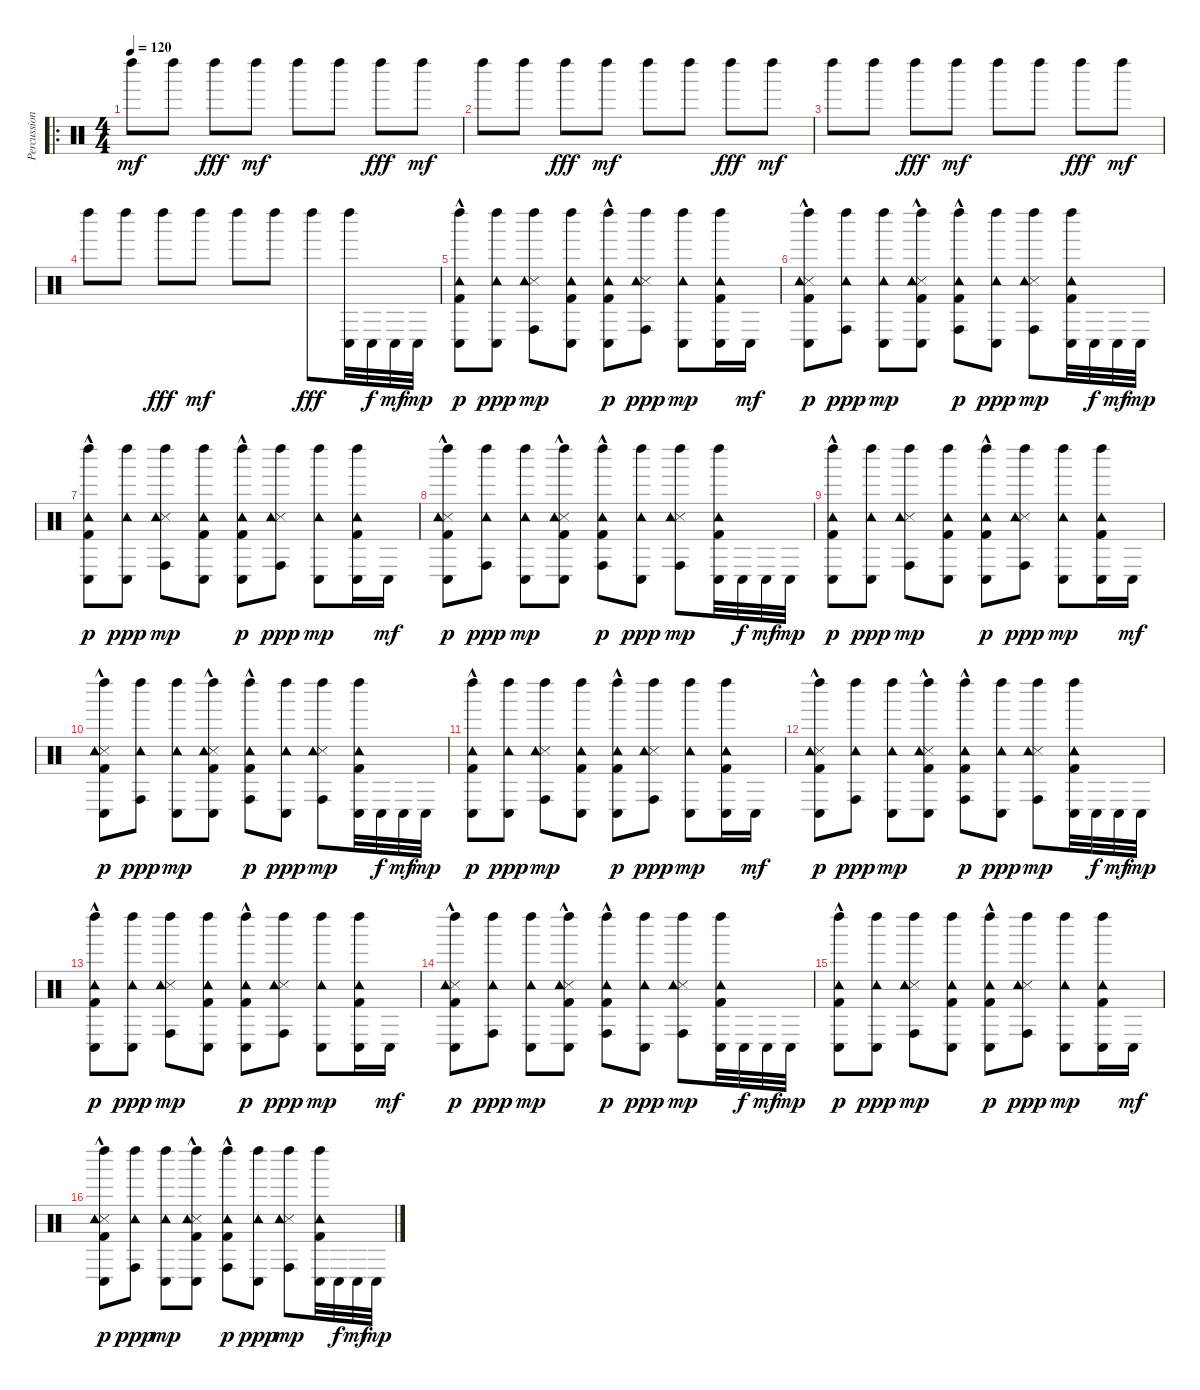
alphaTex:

\track ("Percussions" "Percussion") {instrument percussion}
\staff {score}
\articulation defaults
\ro
\ts (4 4)
\tempo 120
\clef neutral
\ks c "Left Maraca (hit)".8{dy mf} "Left Maraca (hit)".8 "Left Maraca (hit)".8{dy fff} "Left Maraca (hit)".8{dy mf} "Left Maraca (hit)".8 "Left Maraca (hit)".8 "Left Maraca (hit)".8{dy fff} "Left Maraca (hit)".8{dy mf}
|
"Left Maraca (hit)".8 "Left Maraca (hit)".8 "Left Maraca (hit)".8{dy fff} "Left Maraca (hit)".8{dy mf} "Left Maraca (hit)".8 "Left Maraca (hit)".8 "Left Maraca (hit)".8{dy fff} "Left Maraca (hit)".8{dy mf} |
"Left Maraca (hit)".8 "Left Maraca (hit)".8 "Left Maraca (hit)".8{dy fff} "Left Maraca (hit)".8{dy mf} "Left Maraca (hit)".8 "Left Maraca (hit)".8 "Left Maraca (hit)".8{dy fff} "Left Maraca (hit)".8{dy mf} |
"Left Maraca (hit)".8 "Left Maraca (hit)".8 "Left Maraca (hit)".8{dy fff} "Left Maraca (hit)".8{dy mf} "Left Maraca (hit)".8 "Left Maraca (hit)".8 "Left Maraca (hit)".8{dy fff} ("Left Maraca (hit)" "Conga low (hit)").32 "Conga low (hit)".32{dy f} "Conga low (hit)".32{dy mf} "Conga low (hit)".32{dy mp} |
("Kick (hit) 2"{hac} "Left Maraca (hit)" "Conga low (hit)" "Tambourine (hit)").8{dy p} ("Left Maraca (hit)" "Conga low (hit)" "Tambourine (hit)").8{dy ppp} ("Snare (side stick) 3" "Left Maraca (hit)" "Conga high (hit)" "Tambourine (hit)").8{dy mp} ("Kick (hit) 2" "Left Maraca (hit)" "Conga low (hit)" "Tambourine (hit)").8 ("Kick (hit) 2"{hac} "Left Maraca (hit)" "Conga low (hit)" "Tambourine (hit)").8{dy p} ("Snare (side stick) 3" "Left Maraca (hit)" "Conga high (hit)" "Tambourine (hit)").8{dy ppp} ("Left Maraca (hit)" "Conga low (hit)" "Tambourine (hit)").8{dy mp} ("Kick (hit) 2" "Left Maraca (hit)" "Conga low (hit)" "Tambourine (hit)").16 "Conga low (hit)".16{dy mf} |
("Snare (side stick) 3"{hac} "Kick (hit) 2"{hac} "Left Maraca (hit)" "Conga low (hit)" "Tambourine (hit)").8{dy p} ("Left Maraca (hit)" "Conga high (hit)" "Tambourine (hit)").8{dy ppp} ("Left Maraca (hit)" "Conga low (hit)" "Tambourine (hit)").8{dy mp} ("Snare (side stick) 3"{hac} "Kick (hit) 2" "Left Maraca (hit)" "Conga low (hit)" "Tambourine (hit)").8 ("Kick (hit) 2"{hac} "Left Maraca (hit)" "Conga high (hit)" "Tambourine (hit)").8{dy p} ("Left Maraca (hit)" "Conga low (hit)" "Tambourine (hit)").8{dy ppp} ("Snare (side stick) 3" "Left Maraca (hit)" "Conga high (hit)" "Tambourine (hit)").8{dy mp} ("Kick (hit) 2" "Left Maraca (hit)" "Conga low (hit)" "Tambourine (hit)").32 "Conga low (hit)".32{dy f} "Conga low (hit)".32{dy mf} "Conga low (hit)".32{dy mp} |
("Kick (hit) 2"{hac} "Left Maraca (hit)" "Conga low (hit)" "Tambourine (hit)").8{dy p} ("Left Maraca (hit)" "Conga low (hit)" "Tambourine (hit)").8{dy ppp} ("Snare (side stick) 3" "Left Maraca (hit)" "Conga high (hit)" "Tambourine (hit)").8{dy mp} ("Kick (hit) 2" "Left Maraca (hit)" "Conga low (hit)" "Tambourine (hit)").8 ("Kick (hit) 2"{hac} "Left Maraca (hit)" "Conga low (hit)" "Tambourine (hit)").8{dy p} ("Snare (side stick) 3" "Left Maraca (hit)" "Conga high (hit)" "Tambourine (hit)").8{dy ppp} ("Left Maraca (hit)" "Conga low (hit)" "Tambourine (hit)").8{dy mp} ("Kick (hit) 2" "Left Maraca (hit)" "Conga low (hit)" "Tambourine (hit)").16 "Conga low (hit)".16{dy mf} |
("Snare (side stick) 3"{hac} "Kick (hit) 2"{hac} "Left Maraca (hit)" "Conga low (hit)" "Tambourine (hit)").8{dy p} ("Left Maraca (hit)" "Conga high (hit)" "Tambourine (hit)").8{dy ppp} ("Left Maraca (hit)" "Conga low (hit)" "Tambourine (hit)").8{dy mp} ("Snare (side stick) 3"{hac} "Kick (hit) 2" "Left Maraca (hit)" "Conga low (hit)" "Tambourine (hit)").8 ("Kick (hit) 2"{hac} "Left Maraca (hit)" "Conga high (hit)" "Tambourine (hit)").8{dy p} ("Left Maraca (hit)" "Conga low (hit)" "Tambourine (hit)").8{dy ppp} ("Snare (side stick) 3" "Left Maraca (hit)" "Conga high (hit)" "Tambourine (hit)").8{dy mp} ("Kick (hit) 2" "Left Maraca (hit)" "Conga low (hit)" "Tambourine (hit)").32 "Conga low (hit)".32{dy f} "Conga low (hit)".32{dy mf} "Conga low (hit)".32{dy mp} |
("Kick (hit) 2"{hac} "Left Maraca (hit)" "Conga low (hit)" "Tambourine (hit)").8{dy p} ("Left Maraca (hit)" "Conga low (hit)" "Tambourine (hit)").8{dy ppp} ("Snare (side stick) 3" "Left Maraca (hit)" "Conga high (hit)" "Tambourine (hit)").8{dy mp} ("Kick (hit) 2" "Left Maraca (hit)" "Conga low (hit)" "Tambourine (hit)").8 ("Kick (hit) 2"{hac} "Left Maraca (hit)" "Conga low (hit)" "Tambourine (hit)").8{dy p} ("Snare (side stick) 3" "Left Maraca (hit)" "Conga high (hit)" "Tambourine (hit)").8{dy ppp} ("Left Maraca (hit)" "Conga low (hit)" "Tambourine (hit)").8{dy mp} ("Kick (hit) 2" "Left Maraca (hit)" "Conga low (hit)" "Tambourine (hit)").16 "Conga low (hit)".16{dy mf} |
("Snare (side stick) 3"{hac} "Kick (hit) 2"{hac} "Left Maraca (hit)" "Conga low (hit)" "Tambourine (hit)").8{dy p} ("Left Maraca (hit)" "Conga high (hit)" "Tambourine (hit)").8{dy ppp} ("Left Maraca (hit)" "Conga low (hit)" "Tambourine (hit)").8{dy mp} ("Snare (side stick) 3"{hac} "Kick (hit) 2" "Left Maraca (hit)" "Conga low (hit)" "Tambourine (hit)").8 ("Kick (hit) 2"{hac} "Left Maraca (hit)" "Conga high (hit)" "Tambourine (hit)").8{dy p} ("Left Maraca (hit)" "Conga low (hit)" "Tambourine (hit)").8{dy ppp} ("Snare (side stick) 3" "Left Maraca (hit)" "Conga high (hit)" "Tambourine (hit)").8{dy mp} ("Kick (hit) 2" "Left Maraca (hit)" "Conga low (hit)" "Tambourine (hit)").32 "Conga low (hit)".32{dy f} "Conga low (hit)".32{dy mf} "Conga low (hit)".32{dy mp} |
("Kick (hit) 2"{hac} "Left Maraca (hit)" "Conga low (hit)" "Tambourine (hit)").8{dy p} ("Left Maraca (hit)" "Conga low (hit)" "Tambourine (hit)").8{dy ppp} ("Snare (side stick) 3" "Left Maraca (hit)" "Conga high (hit)" "Tambourine (hit)").8{dy mp} ("Kick (hit) 2" "Left Maraca (hit)" "Conga low (hit)" "Tambourine (hit)").8 ("Kick (hit) 2"{hac} "Left Maraca (hit)" "Conga low (hit)" "Tambourine (hit)").8{dy p} ("Snare (side stick) 3" "Left Maraca (hit)" "Conga high (hit)" "Tambourine (hit)").8{dy ppp} ("Left Maraca (hit)" "Conga low (hit)" "Tambourine (hit)").8{dy mp} ("Kick (hit) 2" "Left Maraca (hit)" "Conga low (hit)" "Tambourine (hit)").16 "Conga low (hit)".16{dy mf} |
("Snare (side stick) 3"{hac} "Kick (hit) 2"{hac} "Left Maraca (hit)" "Conga low (hit)" "Tambourine (hit)").8{dy p} ("Left Maraca (hit)" "Conga high (hit)" "Tambourine (hit)").8{dy ppp} ("Left Maraca (hit)" "Conga low (hit)" "Tambourine (hit)").8{dy mp} ("Snare (side stick) 3"{hac} "Kick (hit) 2" "Left Maraca (hit)" "Conga low (hit)" "Tambourine (hit)").8 ("Kick (hit) 2"{hac} "Left Maraca (hit)" "Conga high (hit)" "Tambourine (hit)").8{dy p} ("Left Maraca (hit)" "Conga low (hit)" "Tambourine (hit)").8{dy ppp} ("Snare (side stick) 3" "Left Maraca (hit)" "Conga high (hit)" "Tambourine (hit)").8{dy mp} ("Kick (hit) 2" "Left Maraca (hit)" "Conga low (hit)" "Tambourine (hit)").32 "Conga low (hit)".32{dy f} "Conga low (hit)".32{dy mf} "Conga low (hit)".32{dy mp} |
("Kick (hit) 2"{hac} "Left Maraca (hit)" "Conga low (hit)" "Tambourine (hit)").8{dy p} ("Left Maraca (hit)" "Conga low (hit)" "Tambourine (hit)").8{dy ppp} ("Snare (side stick) 3" "Left Maraca (hit)" "Conga high (hit)" "Tambourine (hit)").8{dy mp} ("Kick (hit) 2" "Left Maraca (hit)" "Conga low (hit)" "Tambourine (hit)").8 ("Kick (hit) 2"{hac} "Left Maraca (hit)" "Conga low (hit)" "Tambourine (hit)").8{dy p} ("Snare (side stick) 3" "Left Maraca (hit)" "Conga high (hit)" "Tambourine (hit)").8{dy ppp} ("Left Maraca (hit)" "Conga low (hit)" "Tambourine (hit)").8{dy mp} ("Kick (hit) 2" "Left Maraca (hit)" "Conga low (hit)" "Tambourine (hit)").16 "Conga low (hit)".16{dy mf} |
("Snare (side stick) 3"{hac} "Kick (hit) 2"{hac} "Left Maraca (hit)" "Conga low (hit)" "Tambourine (hit)").8{dy p} ("Left Maraca (hit)" "Conga high (hit)" "Tambourine (hit)").8{dy ppp} ("Left Maraca (hit)" "Conga low (hit)" "Tambourine (hit)").8{dy mp} ("Snare (side stick) 3"{hac} "Kick (hit) 2" "Left Maraca (hit)" "Conga low (hit)" "Tambourine (hit)").8 ("Kick (hit) 2"{hac} "Left Maraca (hit)" "Conga high (hit)" "Tambourine (hit)").8{dy p} ("Left Maraca (hit)" "Conga low (hit)" "Tambourine (hit)").8{dy ppp} ("Snare (side stick) 3" "Left Maraca (hit)" "Conga high (hit)" "Tambourine (hit)").8{dy mp} ("Kick (hit) 2" "Left Maraca (hit)" "Conga low (hit)" "Tambourine (hit)").32 "Conga low (hit)".32{dy f} "Conga low (hit)".32{dy mf} "Conga low (hit)".32{dy mp} |
("Kick (hit) 2"{hac} "Left Maraca (hit)" "Conga low (hit)" "Tambourine (hit)").8{dy p} ("Left Maraca (hit)" "Conga low (hit)" "Tambourine (hit)").8{dy ppp} ("Snare (side stick) 3" "Left Maraca (hit)" "Conga high (hit)" "Tambourine (hit)").8{dy mp} ("Kick (hit) 2" "Left Maraca (hit)" "Conga low (hit)" "Tambourine (hit)").8 ("Kick (hit) 2"{hac} "Left Maraca (hit)" "Conga low (hit)" "Tambourine (hit)").8{dy p} ("Snare (side stick) 3" "Left Maraca (hit)" "Conga high (hit)" "Tambourine (hit)").8{dy ppp} ("Left Maraca (hit)" "Conga low (hit)" "Tambourine (hit)").8{dy mp} ("Kick (hit) 2" "Left Maraca (hit)" "Conga low (hit)" "Tambourine (hit)").16 "Conga low (hit)".16{dy mf} |
("Snare (side stick) 3"{hac} "Kick (hit) 2"{hac} "Left Maraca (hit)" "Conga low (hit)" "Tambourine (hit)").8{dy p} ("Left Maraca (hit)" "Conga high (hit)" "Tambourine (hit)").8{dy ppp} ("Left Maraca (hit)" "Conga low (hit)" "Tambourine (hit)").8{dy mp} ("Snare (side stick) 3"{hac} "Kick (hit) 2" "Left Maraca (hit)" "Conga low (hit)" "Tambourine (hit)").8 ("Kick (hit) 2"{hac} "Left Maraca (hit)" "Conga high (hit)" "Tambourine (hit)").8{dy p} ("Left Maraca (hit)" "Conga low (hit)" "Tambourine (hit)").8{dy ppp} ("Snare (side stick) 3" "Left Maraca (hit)" "Conga high (hit)" "Tambourine (hit)").8{dy mp} ("Kick (hit) 2" "Left Maraca (hit)" "Conga low (hit)" "Tambourine (hit)").32 "Conga low (hit)".32{dy f} "Conga low (hit)".32{dy mf} "Conga low (hit)".32{dy mp}
